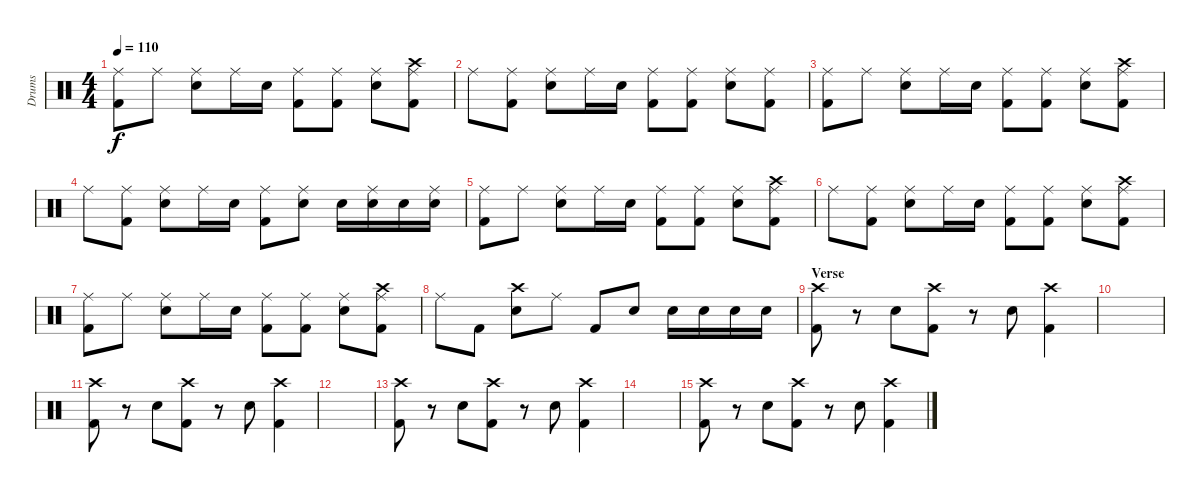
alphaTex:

\track ("Drums" "Drums") {instrument percussion}
\staff {score}
\articulation defaults
\ts (4 4)
\tempo 110
\clef neutral
\ks c
("Ride (middle)" "Kick (hit) 2").8{dy f} "Ride (middle)".8 ("Snare (hit) 2" "Ride (middle)").8 "Ride (middle)".16 "Snare (hit) 2".16 ("Kick (hit) 2" "Ride (middle)").8 ("Kick (hit) 2" "Ride (middle)").8 ("Snare (hit) 2" "Ride (middle)").8 ("Crash high (hit)" "Kick (hit) 2" "Ride (middle)").8 |
"Ride (middle)".8 ("Kick (hit) 2" "Ride (middle)").8 ("Snare (hit) 2" "Ride (middle)").8 "Ride (middle)".16 "Snare (hit) 2".16 ("Kick (hit) 2" "Ride (middle)").8 ("Kick (hit) 2" "Ride (middle)").8 ("Snare (hit) 2" "Ride (middle)").8 ("Kick (hit) 2" "Ride (middle)").8 |
("Ride (middle)" "Kick (hit) 2").8 "Ride (middle)".8 ("Snare (hit) 2" "Ride (middle)").8 "Ride (middle)".16 "Snare (hit) 2".16 ("Kick (hit) 2" "Ride (middle)").8 ("Kick (hit) 2" "Ride (middle)").8 ("Snare (hit) 2" "Ride (middle)").8 ("Crash high (hit)" "Kick (hit) 2" "Ride (middle)").8 |
"Ride (middle)".8 ("Kick (hit) 2" "Ride (middle)").8 ("Snare (hit) 2" "Ride (middle)").8 "Ride (middle)".16 "Snare (hit) 2".16 ("Kick (hit) 2" "Ride (middle)").8 ("Snare (hit) 2" "Ride (middle)").8 "Snare (hit) 2".16 ("Snare (hit) 2" "Ride (middle)").16 "Snare (hit) 2".16 ("Snare (hit) 2" "Ride (middle)").16 |
("Ride (middle)" "Kick (hit) 2").8 "Ride (middle)".8 ("Snare (hit) 2" "Ride (middle)").8 "Ride (middle)".16 "Snare (hit) 2".16 ("Kick (hit) 2" "Ride (middle)").8 ("Kick (hit) 2" "Ride (middle)").8 ("Snare (hit) 2" "Ride (middle)").8 ("Crash high (hit)" "Kick (hit) 2" "Ride (middle)").8 |
"Ride (middle)".8 ("Kick (hit) 2" "Ride (middle)").8 ("Snare (hit) 2" "Ride (middle)").8 "Ride (middle)".16 "Snare (hit) 2".16 ("Kick (hit) 2" "Ride (middle)").8 ("Kick (hit) 2" "Ride (middle)").8 ("Snare (hit) 2" "Ride (middle)").8 ("Crash high (hit)" "Kick (hit) 2" "Ride (middle)").8 |
("Ride (middle)" "Kick (hit) 2").8 "Ride (middle)".8 ("Snare (hit) 2" "Ride (middle)").8 "Ride (middle)".16 "Snare (hit) 2".16 ("Kick (hit) 2" "Ride (middle)").8 ("Kick (hit) 2" "Ride (middle)").8 ("Snare (hit) 2" "Ride (middle)").8 ("Crash high (hit)" "Kick (hit) 2" "Ride (middle)").8 |
"Ride (middle)".8 "Kick (hit) 2".8 ("Snare (hit) 2" "Crash high (hit)").8 "Ride (middle)".8 "Kick (hit) 2".8 "Snare (hit) 2".8 "Snare (hit) 2".16 "Snare (hit) 2".16 "Snare (hit) 2".16 "Snare (hit) 2".16 |
\section ("" "Verse")
("Crash high (hit)" "Kick (hit) 2").8 r.8 "Snare (hit) 2".8 ("Crash high (hit)" "Kick (hit) 2").8 r.8 "Snare (hit) 2".8 ("Crash high (hit)" "Kick (hit) 2").4 |
|
("Crash high (hit)" "Kick (hit) 2").8 r.8 "Snare (hit) 2".8 ("Crash high (hit)" "Kick (hit) 2").8 r.8 "Snare (hit) 2".8 ("Crash high (hit)" "Kick (hit) 2").4 |
|
("Crash high (hit)" "Kick (hit) 2").8 r.8 "Snare (hit) 2".8 ("Crash high (hit)" "Kick (hit) 2").8 r.8 "Snare (hit) 2".8 ("Crash high (hit)" "Kick (hit) 2").4 |
|
("Crash high (hit)" "Kick (hit) 2").8 r.8 "Snare (hit) 2".8 ("Crash high (hit)" "Kick (hit) 2").8 r.8 "Snare (hit) 2".8 ("Crash high (hit)" "Kick (hit) 2").4
